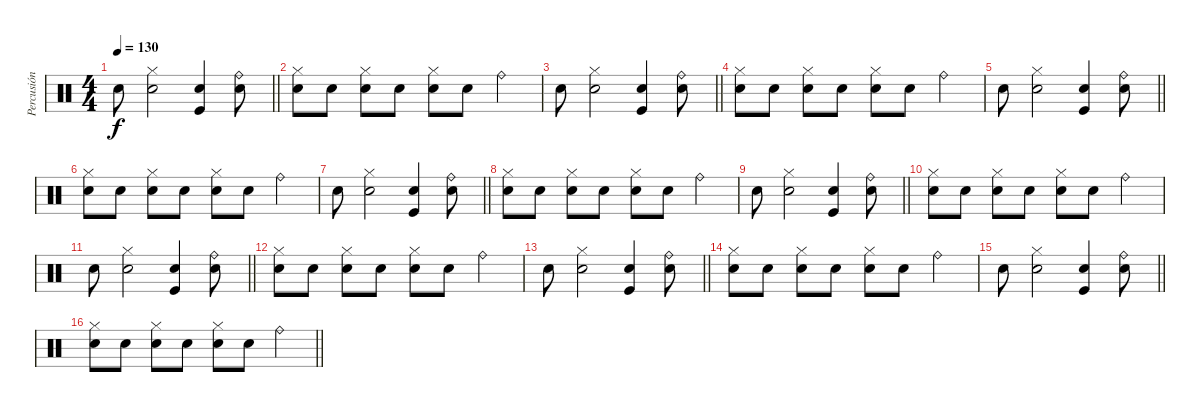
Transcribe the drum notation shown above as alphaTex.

\track ("Percusión" "Percusión") {instrument percussion}
\staff {score}
\articulation defaults
\ts (4 4)
\section ("" "")
\tempo 130
\clef neutral
\barLineRight lightlight
\ks c "Snare (hit) 2".8{dy f}
("Hi-Hat (closed)" "Snare (hit) 2").2 ("Snare (hit) 2" "Kick (hit)").4 ("Ride (bell)" "Snare (hit) 2").8 |
("Hi-Hat (closed)" "Snare (hit) 2").8 "Snare (hit) 2".8 ("Hi-Hat (closed)" "Snare (hit) 2").8 "Snare (hit) 2".8 ("Hi-Hat (closed)" "Snare (hit) 2").8 "Snare (hit) 2".8 "Ride (bell)".4 |
\barLineRight lightlight "Snare (hit) 2".8
("Hi-Hat (closed)" "Snare (hit) 2").2 ("Snare (hit) 2" "Kick (hit)").4 ("Ride (bell)" "Snare (hit) 2").8 |
("Hi-Hat (closed)" "Snare (hit) 2").8 "Snare (hit) 2".8 ("Hi-Hat (closed)" "Snare (hit) 2").8 "Snare (hit) 2".8 ("Hi-Hat (closed)" "Snare (hit) 2").8 "Snare (hit) 2".8 "Ride (bell)".4 |
\barLineRight lightlight "Snare (hit) 2".8
("Hi-Hat (closed)" "Snare (hit) 2").2 ("Snare (hit) 2" "Kick (hit)").4 ("Ride (bell)" "Snare (hit) 2").8 |
("Hi-Hat (closed)" "Snare (hit) 2").8 "Snare (hit) 2".8 ("Hi-Hat (closed)" "Snare (hit) 2").8 "Snare (hit) 2".8 ("Hi-Hat (closed)" "Snare (hit) 2").8 "Snare (hit) 2".8 "Ride (bell)".4 |
\barLineRight lightlight "Snare (hit) 2".8
("Hi-Hat (closed)" "Snare (hit) 2").2 ("Snare (hit) 2" "Kick (hit)").4 ("Ride (bell)" "Snare (hit) 2").8 |
("Hi-Hat (closed)" "Snare (hit) 2").8 "Snare (hit) 2".8 ("Hi-Hat (closed)" "Snare (hit) 2").8 "Snare (hit) 2".8 ("Hi-Hat (closed)" "Snare (hit) 2").8 "Snare (hit) 2".8 "Ride (bell)".4 |
\barLineRight lightlight "Snare (hit) 2".8
("Hi-Hat (closed)" "Snare (hit) 2").2 ("Snare (hit) 2" "Kick (hit)").4 ("Ride (bell)" "Snare (hit) 2").8 |
("Hi-Hat (closed)" "Snare (hit) 2").8 "Snare (hit) 2".8 ("Hi-Hat (closed)" "Snare (hit) 2").8 "Snare (hit) 2".8 ("Hi-Hat (closed)" "Snare (hit) 2").8 "Snare (hit) 2".8 "Ride (bell)".4 |
\barLineRight lightlight "Snare (hit) 2".8
("Hi-Hat (closed)" "Snare (hit) 2").2 ("Snare (hit) 2" "Kick (hit)").4 ("Ride (bell)" "Snare (hit) 2").8 |
("Hi-Hat (closed)" "Snare (hit) 2").8 "Snare (hit) 2".8 ("Hi-Hat (closed)" "Snare (hit) 2").8 "Snare (hit) 2".8 ("Hi-Hat (closed)" "Snare (hit) 2").8 "Snare (hit) 2".8 "Ride (bell)".4 |
\barLineRight lightlight "Snare (hit) 2".8
("Hi-Hat (closed)" "Snare (hit) 2").2 ("Snare (hit) 2" "Kick (hit)").4 ("Ride (bell)" "Snare (hit) 2").8 |
("Hi-Hat (closed)" "Snare (hit) 2").8 "Snare (hit) 2".8 ("Hi-Hat (closed)" "Snare (hit) 2").8 "Snare (hit) 2".8 ("Hi-Hat (closed)" "Snare (hit) 2").8 "Snare (hit) 2".8 "Ride (bell)".4 |
\barLineRight lightlight "Snare (hit) 2".8
("Hi-Hat (closed)" "Snare (hit) 2").2 ("Snare (hit) 2" "Kick (hit)").4 ("Ride (bell)" "Snare (hit) 2").8 |
\barLineRight lightlight
("Hi-Hat (closed)" "Snare (hit) 2").8 "Snare (hit) 2".8 ("Hi-Hat (closed)" "Snare (hit) 2").8 "Snare (hit) 2".8 ("Hi-Hat (closed)" "Snare (hit) 2").8 "Snare (hit) 2".8 "Ride (bell)".4
